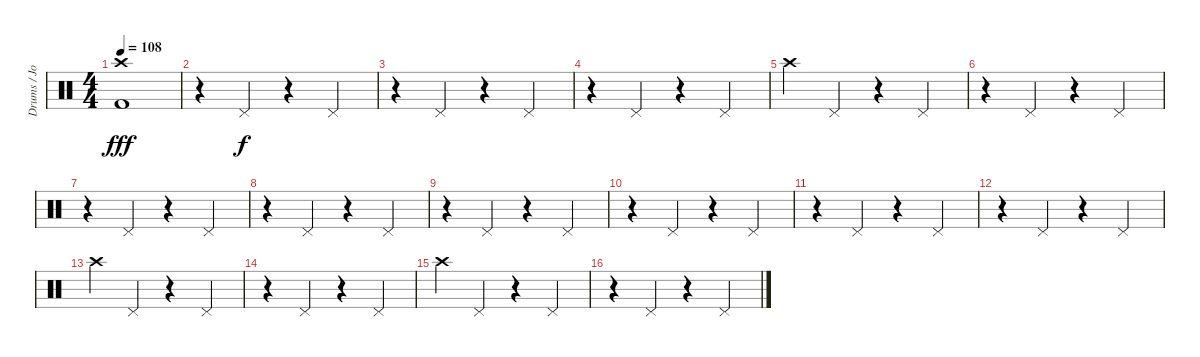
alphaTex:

\track ("Drums / Jon Wysocki" "Drums / Jo") {instrument percussion}
\staff {score}
\articulation defaults
\ts (4 4)
\tempo 108
\clef neutral
\ks c
("Crash high (hit)" "Kick (hit) 2").1{dy fff} |
r.4 "Pedal Hi-Hat (hit)".4{dy f} r.4 "Pedal Hi-Hat (hit)".4 |
r.4 "Pedal Hi-Hat (hit)".4 r.4 "Pedal Hi-Hat (hit)".4 |
r.4 "Pedal Hi-Hat (hit)".4 r.4 "Pedal Hi-Hat (hit)".4 |
"Crash high (hit)".4 "Pedal Hi-Hat (hit)".4 r.4 "Pedal Hi-Hat (hit)".4 |
r.4 "Pedal Hi-Hat (hit)".4 r.4 "Pedal Hi-Hat (hit)".4 |
r.4 "Pedal Hi-Hat (hit)".4 r.4 "Pedal Hi-Hat (hit)".4 |
r.4 "Pedal Hi-Hat (hit)".4 r.4 "Pedal Hi-Hat (hit)".4 |
r.4 "Pedal Hi-Hat (hit)".4 r.4 "Pedal Hi-Hat (hit)".4 |
r.4 "Pedal Hi-Hat (hit)".4 r.4 "Pedal Hi-Hat (hit)".4 |
r.4 "Pedal Hi-Hat (hit)".4 r.4 "Pedal Hi-Hat (hit)".4 |
r.4 "Pedal Hi-Hat (hit)".4 r.4 "Pedal Hi-Hat (hit)".4 |
"Crash high (hit)".4 "Pedal Hi-Hat (hit)".4 r.4 "Pedal Hi-Hat (hit)".4 |
r.4 "Pedal Hi-Hat (hit)".4 r.4 "Pedal Hi-Hat (hit)".4 |
"Crash high (hit)".4 "Pedal Hi-Hat (hit)".4 r.4 "Pedal Hi-Hat (hit)".4 |
r.4 "Pedal Hi-Hat (hit)".4 r.4 "Pedal Hi-Hat (hit)".4
